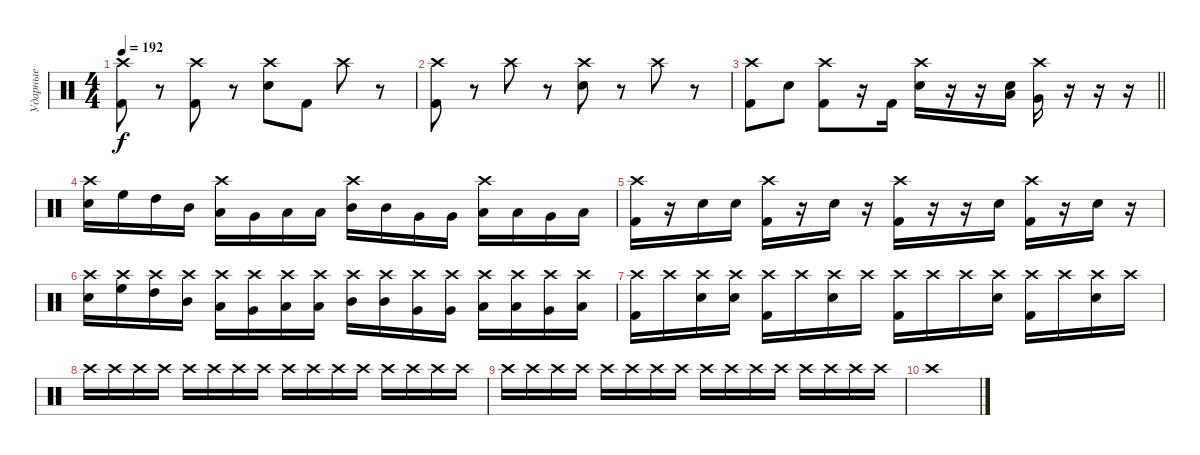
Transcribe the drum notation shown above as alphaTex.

\track ("Ударные" "Ударные") {instrument percussion}
\staff {score}
\articulation defaults
\ts (4 4)
\tempo 192
\clef neutral
\ks c
("Kick (hit) 2" "Crash high (hit)").8{dy f} r.8 ("Kick (hit) 2" "Crash high (hit)").8 r.8 ("Snare (hit) 2" "Crash high (hit)").8 "Kick (hit) 2".8 "Crash high (hit)".8 r.8 |
("Kick (hit) 2" "Crash high (hit)").8 r.8 "Crash high (hit)".8 r.8 ("Snare (hit) 2" "Crash high (hit)").8 r.8 "Crash high (hit)".8 r.8 |
\barLineRight lightlight
("Kick (hit) 2" "Crash high (hit)").8 "Snare (hit) 2".8 ("Kick (hit) 2" "Crash high (hit)").8 r.16 "Kick (hit) 2".16 ("Snare (hit) 2" "Crash high (hit)").16 r.16 r.16 ("Snare (hit) 2" "Low Tom (hit)").16 ("Very Low Tom (hit)" "Crash high (hit)").16 r.16 r.16 r.16 |
("Snare (hit) 2" "Crash high (hit)").16 "High Floor Tom (hit)".16 "High Tom (hit)".16 "Mid Tom (hit)".16 ("Low Tom (hit)" "Crash high (hit)").16 "Very Low Tom (hit)".16 "Low Tom (hit)".16 "Low Tom (hit)".16 ("Mid Tom (hit)" "Crash high (hit)").16 "Mid Tom (hit)".16 "Very Low Tom (hit)".16 "Very Low Tom (hit)".16 ("Low Floor Tom (hit)" "Crash high (hit)").16 "Low Floor Tom (hit)".16 "Very Low Tom (hit)".16 "Low Floor Tom (hit)".16 |
("Crash high (hit)" "Kick (hit) 2").16 r.16 "Snare (hit) 2".16 "Snare (hit) 2".16 ("Crash high (hit)" "Kick (hit) 2").16 r.16 "Snare (hit) 2".16 r.16 ("Crash high (hit)" "Kick (hit) 2").16 r.16 r.16 "Snare (hit) 2".16 ("Crash high (hit)" "Kick (hit) 2").16 r.16 "Snare (hit) 2".16 r.16 |
("Snare (hit) 2" "Crash high (hit)").16 ("High Floor Tom (hit)" "Crash high (hit)").16 ("High Tom (hit)" "Crash high (hit)").16 ("Mid Tom (hit)" "Crash high (hit)").16 ("Low Tom (hit)" "Crash high (hit)").16 ("Very Low Tom (hit)" "Crash high (hit)").16 ("Low Tom (hit)" "Crash high (hit)").16 ("Low Tom (hit)" "Crash high (hit)").16 ("Mid Tom (hit)" "Crash high (hit)").16 ("Mid Tom (hit)" "Crash high (hit)").16 ("Very Low Tom (hit)" "Crash high (hit)").16 ("Very Low Tom (hit)" "Crash high (hit)").16 ("Low Floor Tom (hit)" "Crash high (hit)").16 ("Low Floor Tom (hit)" "Crash high (hit)").16 ("Very Low Tom (hit)" "Crash high (hit)").16 ("Low Floor Tom (hit)" "Crash high (hit)").16 |
("Crash high (hit)" "Kick (hit) 2").16 "Crash high (hit)".16 ("Snare (hit) 2" "Crash high (hit)").16 ("Snare (hit) 2" "Crash high (hit)").16 ("Crash high (hit)" "Kick (hit) 2").16 "Crash high (hit)".16 ("Snare (hit) 2" "Crash high (hit)").16 "Crash high (hit)".16 ("Crash high (hit)" "Kick (hit) 2").16 "Crash high (hit)".16 "Crash high (hit)".16 ("Snare (hit) 2" "Crash high (hit)").16 ("Crash high (hit)" "Kick (hit) 2").16 "Crash high (hit)".16 ("Snare (hit) 2" "Crash high (hit)").16 "Crash high (hit)".16 |
"Crash high (hit)".16 "Crash high (hit)".16 "Crash high (hit)".16 "Crash high (hit)".16 "Crash high (hit)".16 "Crash high (hit)".16 "Crash high (hit)".16 "Crash high (hit)".16 "Crash high (hit)".16 "Crash high (hit)".16 "Crash high (hit)".16 "Crash high (hit)".16 "Crash high (hit)".16 "Crash high (hit)".16 "Crash high (hit)".16 "Crash high (hit)".16 |
"Crash high (hit)".16 "Crash high (hit)".16 "Crash high (hit)".16 "Crash high (hit)".16 "Crash high (hit)".16 "Crash high (hit)".16 "Crash high (hit)".16 "Crash high (hit)".16 "Crash high (hit)".16 "Crash high (hit)".16 "Crash high (hit)".16 "Crash high (hit)".16 "Crash high (hit)".16 "Crash high (hit)".16 "Crash high (hit)".16 "Crash high (hit)".16 |
"Crash high (hit)".1
